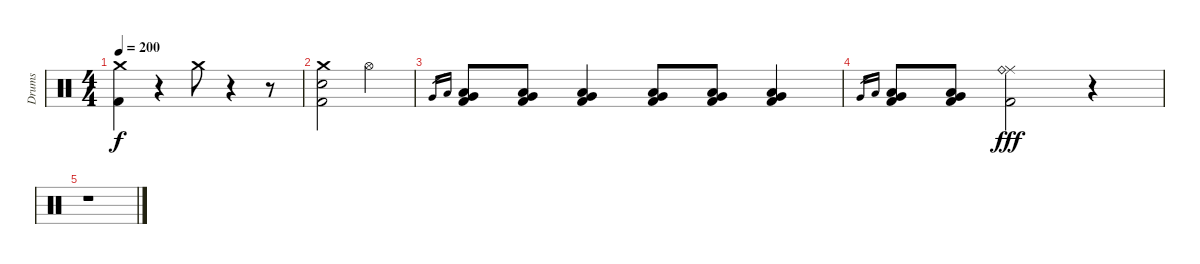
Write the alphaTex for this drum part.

\track ("Drums" "Drums") {instrument percussion}
\staff {score}
\articulation defaults
\ts (4 4)
\tempo 200
\clef neutral
\ks c
("Crash medium (hit)" "Kick (hit) 2").4{dy f} r.4 "Crash medium (hit)".8 r.4 r.8 |
("Crash medium (hit)" "Electric Snare (hit)" "Kick (hit) 2").2 "Hi-Hat (open)".2 |
"Very Low Tom (hit)".16{gr} "Low Floor Tom (hit)".16{gr} ("Very Low Tom (hit)" "Low Floor Tom (hit)" "Kick (hit) 2").8 ("Very Low Tom (hit)" "Low Floor Tom (hit)" "Kick (hit) 2").8 ("Very Low Tom (hit)" "Low Floor Tom (hit)" "Kick (hit) 2").4 ("Very Low Tom (hit)" "Low Floor Tom (hit)" "Kick (hit) 2").8 ("Very Low Tom (hit)" "Low Floor Tom (hit)" "Kick (hit) 2").8 ("Very Low Tom (hit)" "Low Floor Tom (hit)" "Kick (hit) 2").4 |
"Very Low Tom (hit)".16{gr} "Low Floor Tom (hit)".16{gr} ("Very Low Tom (hit)" "Low Floor Tom (hit)" "Kick (hit) 2").8 ("Very Low Tom (hit)" "Low Floor Tom (hit)" "Kick (hit) 2").8 ("Ride (middle)" "Ride (bell)" "Kick (hit) 2").2{dy fff} r.4 |
r.1
